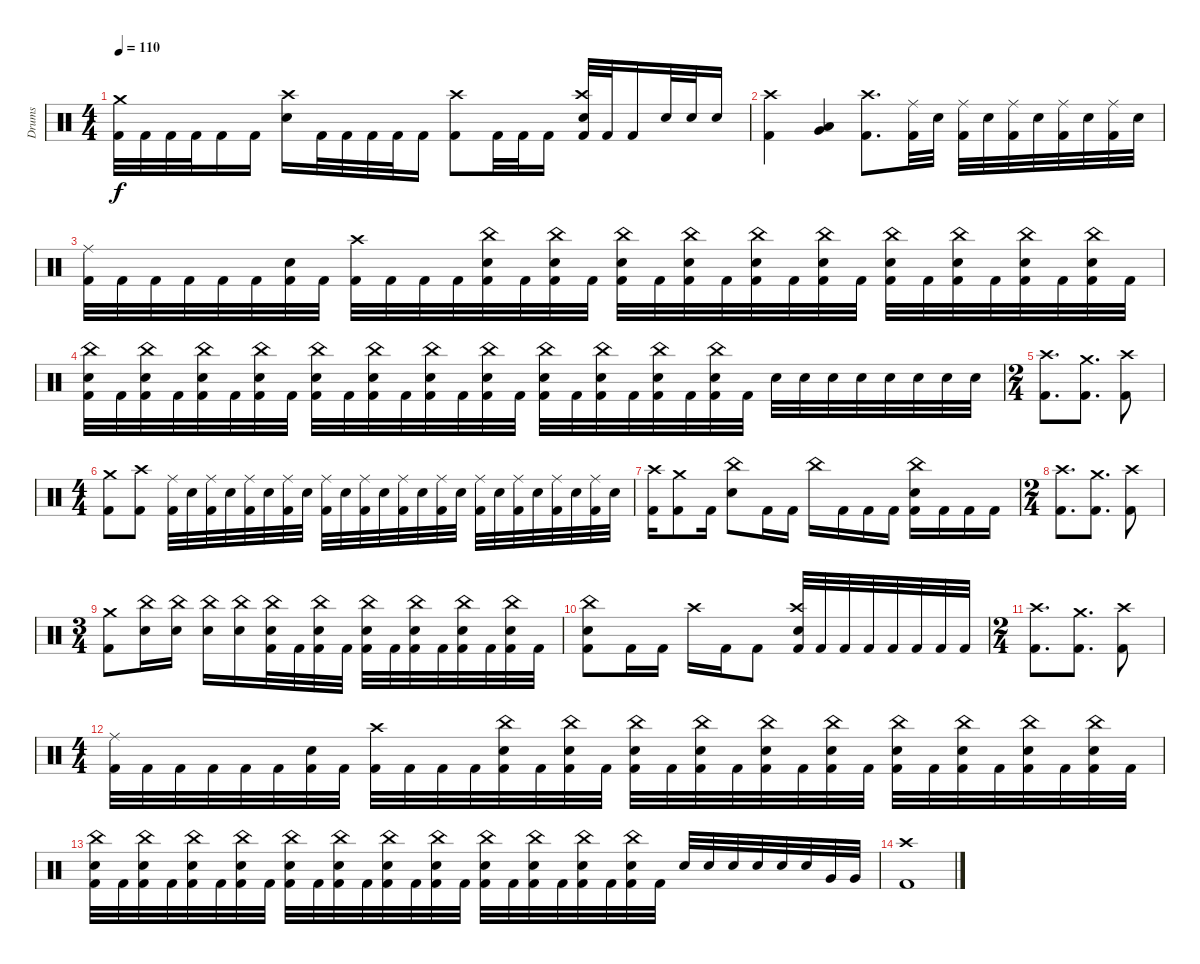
\track ("Drums" "Drums") {instrument percussion}
\staff {score}
\articulation defaults
\ts (4 4)
\tempo 110
\clef neutral
\ks c
("Crash medium (hit)" "Kick (hit) 2").32{dy f} "Kick (hit) 2".32 "Kick (hit) 2".32 "Kick (hit) 2".32 "Kick (hit) 2".16 "Kick (hit) 2".16 ("Crash high (hit)" "Electric Snare (hit)").16 "Kick (hit) 2".32 "Kick (hit) 2".32 "Kick (hit) 2".32 "Kick (hit) 2".32 "Kick (hit) 2".16 ("Crash high (hit)" "Kick (hit) 2").8 "Kick (hit) 2".32 "Kick (hit) 2".32 "Kick (hit) 2".16 ("Crash high (hit)" "Electric Snare (hit)" "Kick (hit) 2").32 "Kick (hit) 2".32 "Kick (hit) 2".16 "Electric Snare (hit)".32 "Electric Snare (hit)".32 "Electric Snare (hit)".16 |
("Crash high (hit)" "Kick (hit) 2").4 ("Very Low Tom (hit)" "Low Floor Tom (hit)").4 ("Crash high (hit)" "Kick (hit) 2").8{d} ("Ride (middle)" "Kick (hit) 2").32 "Electric Snare (hit)".32 ("Ride (middle)" "Kick (hit) 2").32 "Electric Snare (hit)".32 ("Ride (middle)" "Kick (hit) 2").32 "Electric Snare (hit)".32 ("Ride (middle)" "Kick (hit) 2").32 "Electric Snare (hit)".32 ("Ride (middle)" "Kick (hit) 2").32 "Electric Snare (hit)".32 |
("Ride (middle)" "Kick (hit) 2").32 "Kick (hit) 2".32 "Kick (hit) 2".32 "Kick (hit) 2".32 "Kick (hit) 2".32 "Kick (hit) 2".32 ("Electric Snare (hit)" "Kick (hit) 2").32 "Kick (hit) 2".32 ("Crash high (hit)" "Kick (hit) 2").32 "Kick (hit) 2".32 "Kick (hit) 2".32 "Kick (hit) 2".32 ("China (hit)" "Electric Snare (hit)" "Kick (hit) 2").32 "Kick (hit) 2".32 ("China (hit)" "Electric Snare (hit)" "Kick (hit) 2").32 "Kick (hit) 2".32 ("China (hit)" "Electric Snare (hit)" "Kick (hit) 2").32 "Kick (hit) 2".32 ("China (hit)" "Electric Snare (hit)" "Kick (hit) 2").32 "Kick (hit) 2".32 ("China (hit)" "Electric Snare (hit)" "Kick (hit) 2").32 "Kick (hit) 2".32 ("China (hit)" "Electric Snare (hit)" "Kick (hit) 2").32 "Kick (hit) 2".32 ("China (hit)" "Electric Snare (hit)" "Kick (hit) 2").32 "Kick (hit) 2".32 ("China (hit)" "Electric Snare (hit)" "Kick (hit) 2").32 "Kick (hit) 2".32 ("China (hit)" "Electric Snare (hit)" "Kick (hit) 2").32 "Kick (hit) 2".32 ("China (hit)" "Electric Snare (hit)" "Kick (hit) 2").32 "Kick (hit) 2".32 |
("China (hit)" "Electric Snare (hit)" "Kick (hit) 2").32 "Kick (hit) 2".32 ("China (hit)" "Electric Snare (hit)" "Kick (hit) 2").32 "Kick (hit) 2".32 ("China (hit)" "Electric Snare (hit)" "Kick (hit) 2").32 "Kick (hit) 2".32 ("China (hit)" "Electric Snare (hit)" "Kick (hit) 2").32 "Kick (hit) 2".32 ("China (hit)" "Electric Snare (hit)" "Kick (hit) 2").32 "Kick (hit) 2".32 ("China (hit)" "Electric Snare (hit)" "Kick (hit) 2").32 "Kick (hit) 2".32 ("China (hit)" "Electric Snare (hit)" "Kick (hit) 2").32 "Kick (hit) 2".32 ("China (hit)" "Electric Snare (hit)" "Kick (hit) 2").32 "Kick (hit) 2".32 ("China (hit)" "Electric Snare (hit)" "Kick (hit) 2").32 "Kick (hit) 2".32 ("China (hit)" "Electric Snare (hit)" "Kick (hit) 2").32 "Kick (hit) 2".32 ("China (hit)" "Electric Snare (hit)" "Kick (hit) 2").32 "Kick (hit) 2".32 ("China (hit)" "Electric Snare (hit)" "Kick (hit) 2").32 "Kick (hit) 2".32 "Electric Snare (hit)".32 "Electric Snare (hit)".32 "Electric Snare (hit)".32 "Electric Snare (hit)".32 "Electric Snare (hit)".32 "Electric Snare (hit)".32 "Electric Snare (hit)".32 "Electric Snare (hit)".32 |
\ts (2 4)
("Crash high (hit)" "Kick (hit) 2").8{d} ("Crash medium (hit)" "Kick (hit) 2").8{d} ("Crash high (hit)" "Kick (hit) 2").8 |
\ts (4 4)
("Crash medium (hit)" "Kick (hit) 2").8 ("Crash high (hit)" "Kick (hit) 2").8 ("Ride (middle)" "Kick (hit) 2").32 "Electric Snare (hit)".32 ("Ride (middle)" "Kick (hit) 2").32 "Electric Snare (hit)".32 ("Ride (middle)" "Kick (hit) 2").32 "Electric Snare (hit)".32 ("Ride (middle)" "Kick (hit) 2").32 "Electric Snare (hit)".32 ("Ride (middle)" "Kick (hit) 2").32 "Electric Snare (hit)".32 ("Ride (middle)" "Kick (hit) 2").32 "Electric Snare (hit)".32 ("Ride (middle)" "Kick (hit) 2").32 "Electric Snare (hit)".32 ("Ride (middle)" "Kick (hit) 2").32 "Electric Snare (hit)".32 ("Ride (middle)" "Kick (hit) 2").32 "Electric Snare (hit)".32 ("Ride (middle)" "Kick (hit) 2").32 "Electric Snare (hit)".32 ("Ride (middle)" "Kick (hit) 2").32 "Electric Snare (hit)".32 ("Ride (middle)" "Kick (hit) 2").32 "Electric Snare (hit)".32 |
("Crash high (hit)" "Kick (hit) 2").16 ("Crash medium (hit)" "Kick (hit) 2").8 "Kick (hit) 2".16 ("China (hit)" "Electric Snare (hit)").8 "Kick (hit) 2".16 "Kick (hit) 2".16 "China (hit)".16 "Kick (hit) 2".16 "Kick (hit) 2".16 "Kick (hit) 2".16 ("China (hit)" "Electric Snare (hit)" "Kick (hit) 2").16 "Kick (hit) 2".16 "Kick (hit) 2".16 "Kick (hit) 2".16 |
\ts (2 4)
("Crash high (hit)" "Kick (hit) 2").8{d} ("Crash medium (hit)" "Kick (hit) 2").8{d} ("Crash high (hit)" "Kick (hit) 2").8 |
\ts (3 4)
("Crash medium (hit)" "Kick (hit) 2").8 ("China (hit)" "Electric Snare (hit)").16 ("China (hit)" "Electric Snare (hit)").16 ("China (hit)" "Electric Snare (hit)").16 ("China (hit)" "Electric Snare (hit)").16 ("China (hit)" "Electric Snare (hit)" "Kick (hit) 2").32 "Kick (hit) 2".32 ("China (hit)" "Electric Snare (hit)" "Kick (hit) 2").32 "Kick (hit) 2".32 ("China (hit)" "Electric Snare (hit)" "Kick (hit) 2").32 "Kick (hit) 2".32 ("China (hit)" "Electric Snare (hit)" "Kick (hit) 2").32 "Kick (hit) 2".32 ("China (hit)" "Electric Snare (hit)" "Kick (hit) 2").32 "Kick (hit) 2".32 ("China (hit)" "Electric Snare (hit)" "Kick (hit) 2").32 "Kick (hit) 2".32 |
("China (hit)" "Electric Snare (hit)" "Kick (hit) 2").8 "Kick (hit) 2".16 "Kick (hit) 2".16 "Crash high (hit)".16 "Kick (hit) 2".16 "Kick (hit) 2".8 ("Crash high (hit)" "Electric Snare (hit)" "Kick (hit) 2").32 "Kick (hit) 2".32 "Kick (hit) 2".32 "Kick (hit) 2".32 "Kick (hit) 2".32 "Kick (hit) 2".32 "Kick (hit) 2".32 "Kick (hit) 2".32 |
\ts (2 4)
("Crash high (hit)" "Kick (hit) 2").8{d} ("Crash medium (hit)" "Kick (hit) 2").8{d} ("Crash high (hit)" "Kick (hit) 2").8 |
\ts (4 4)
("Ride (middle)" "Kick (hit) 2").32 "Kick (hit) 2".32 "Kick (hit) 2".32 "Kick (hit) 2".32 "Kick (hit) 2".32 "Kick (hit) 2".32 ("Electric Snare (hit)" "Kick (hit) 2").32 "Kick (hit) 2".32 ("Crash high (hit)" "Kick (hit) 2").32 "Kick (hit) 2".32 "Kick (hit) 2".32 "Kick (hit) 2".32 ("China (hit)" "Electric Snare (hit)" "Kick (hit) 2").32 "Kick (hit) 2".32 ("China (hit)" "Electric Snare (hit)" "Kick (hit) 2").32 "Kick (hit) 2".32 ("China (hit)" "Electric Snare (hit)" "Kick (hit) 2").32 "Kick (hit) 2".32 ("China (hit)" "Electric Snare (hit)" "Kick (hit) 2").32 "Kick (hit) 2".32 ("China (hit)" "Electric Snare (hit)" "Kick (hit) 2").32 "Kick (hit) 2".32 ("China (hit)" "Electric Snare (hit)" "Kick (hit) 2").32 "Kick (hit) 2".32 ("China (hit)" "Electric Snare (hit)" "Kick (hit) 2").32 "Kick (hit) 2".32 ("China (hit)" "Electric Snare (hit)" "Kick (hit) 2").32 "Kick (hit) 2".32 ("China (hit)" "Electric Snare (hit)" "Kick (hit) 2").32 "Kick (hit) 2".32 ("China (hit)" "Electric Snare (hit)" "Kick (hit) 2").32 "Kick (hit) 2".32 |
("China (hit)" "Electric Snare (hit)" "Kick (hit) 2").32 "Kick (hit) 2".32 ("China (hit)" "Electric Snare (hit)" "Kick (hit) 2").32 "Kick (hit) 2".32 ("China (hit)" "Electric Snare (hit)" "Kick (hit) 2").32 "Kick (hit) 2".32 ("China (hit)" "Electric Snare (hit)" "Kick (hit) 2").32 "Kick (hit) 2".32 ("China (hit)" "Electric Snare (hit)" "Kick (hit) 2").32 "Kick (hit) 2".32 ("China (hit)" "Electric Snare (hit)" "Kick (hit) 2").32 "Kick (hit) 2".32 ("China (hit)" "Electric Snare (hit)" "Kick (hit) 2").32 "Kick (hit) 2".32 ("China (hit)" "Electric Snare (hit)" "Kick (hit) 2").32 "Kick (hit) 2".32 ("China (hit)" "Electric Snare (hit)" "Kick (hit) 2").32 "Kick (hit) 2".32 ("China (hit)" "Electric Snare (hit)" "Kick (hit) 2").32 "Kick (hit) 2".32 ("China (hit)" "Electric Snare (hit)" "Kick (hit) 2").32 "Kick (hit) 2".32 ("China (hit)" "Electric Snare (hit)" "Kick (hit) 2").32 "Kick (hit) 2".32 "Electric Snare (hit)".32 "Electric Snare (hit)".32 "Electric Snare (hit)".32 "Electric Snare (hit)".32 "Electric Snare (hit)".32 "Electric Snare (hit)".32 "Very Low Tom (hit)".32 "Very Low Tom (hit)".32 |
("Crash high (hit)" "Kick (hit) 2").1
